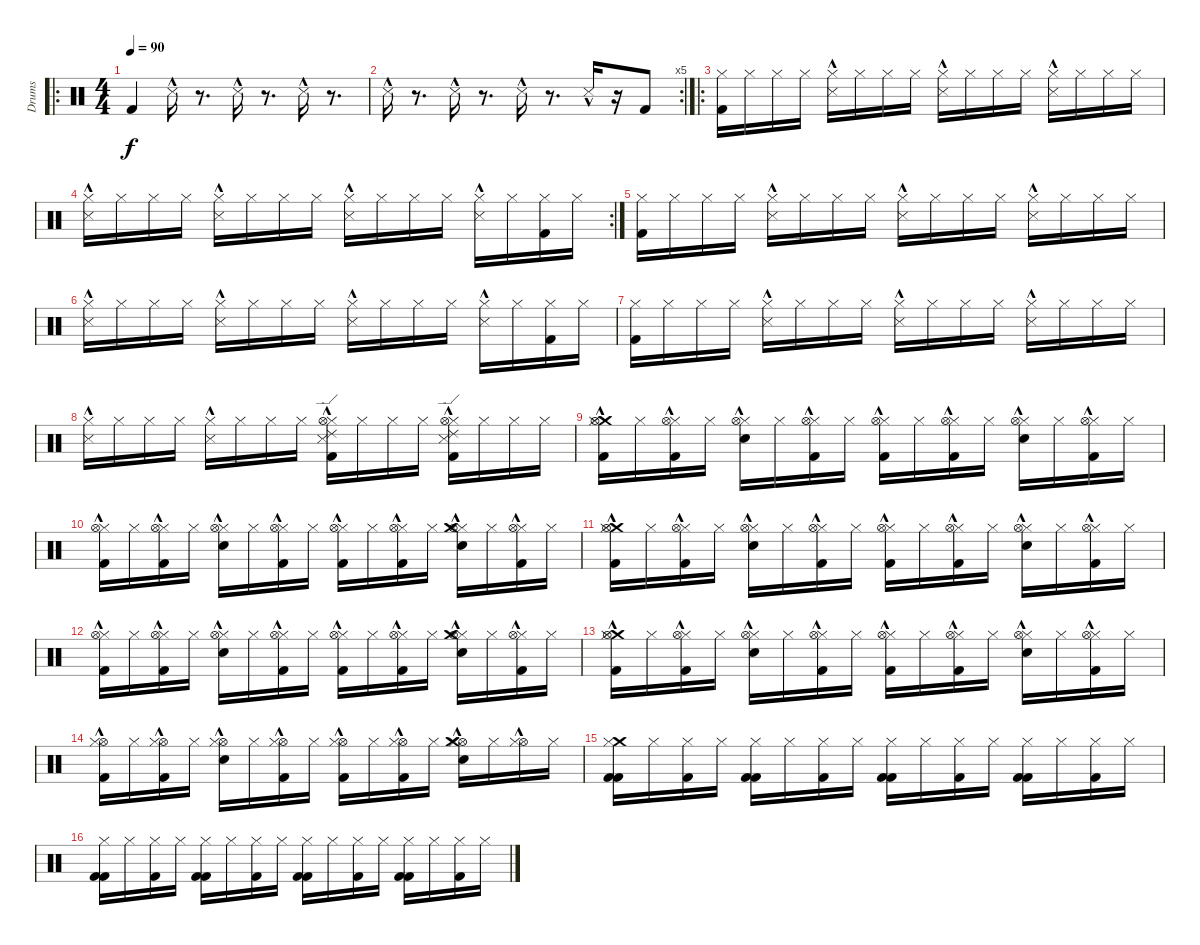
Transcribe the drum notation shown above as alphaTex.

\track ("Drums" "Drums") {instrument percussion}
\staff {score}
\articulation defaults
\ro
\ts (4 4)
\tempo 90
\clef neutral
\ks c "Kick (hit) 2".4{dy f} "Snare (side stick) 3"{hac}.16
r.8{d} "Snare (side stick) 3"{hac}.16 r.8{d} "Snare (side stick) 3"{hac}.16 r.8{d} |
\rc 5 "Snare (side stick) 3"{hac}.16
r.8{d} "Snare (side stick) 3"{hac}.16 r.8{d} "Snare (side stick) 3"{hac}.16 r.8{d} "Snare (side stick) 3"{hac}.16 r.16 "Kick (hit) 2".8 |
\ro
("Kick (hit) 2" "Hi-Hat (closed)").16 "Hi-Hat (closed)".16 "Hi-Hat (closed)".16 "Hi-Hat (closed)".16 ("Snare (side stick) 3"{hac} "Hi-Hat (closed)").16 "Hi-Hat (closed)".16 "Hi-Hat (closed)".16 "Hi-Hat (closed)".16 ("Snare (side stick) 3"{hac} "Hi-Hat (closed)").16 "Hi-Hat (closed)".16 "Hi-Hat (closed)".16 "Hi-Hat (closed)".16 ("Snare (side stick) 3"{hac} "Hi-Hat (closed)").16 "Hi-Hat (closed)".16 "Hi-Hat (closed)".16 "Hi-Hat (closed)".16 |
\rc 2
("Snare (side stick) 3"{hac} "Hi-Hat (closed)").16 "Hi-Hat (closed)".16 "Hi-Hat (closed)".16 "Hi-Hat (closed)".16 ("Snare (side stick) 3"{hac} "Hi-Hat (closed)").16 "Hi-Hat (closed)".16 "Hi-Hat (closed)".16 "Hi-Hat (closed)".16 ("Snare (side stick) 3"{hac} "Hi-Hat (closed)").16 "Hi-Hat (closed)".16 "Hi-Hat (closed)".16 "Hi-Hat (closed)".16 ("Snare (side stick) 3"{hac} "Hi-Hat (closed)").16 "Hi-Hat (closed)".16 ("Kick (hit) 2" "Hi-Hat (closed)").16 "Hi-Hat (closed)".16 |
("Hi-Hat (closed)" "Kick (hit) 2").16 "Hi-Hat (closed)".16 "Hi-Hat (closed)".16 "Hi-Hat (closed)".16 ("Hi-Hat (closed)" "Snare (side stick) 3"{hac}).16 "Hi-Hat (closed)".16 "Hi-Hat (closed)".16 "Hi-Hat (closed)".16 ("Hi-Hat (closed)" "Snare (side stick) 3"{hac}).16 "Hi-Hat (closed)".16 "Hi-Hat (closed)".16 "Hi-Hat (closed)".16 ("Hi-Hat (closed)" "Snare (side stick) 3"{hac}).16 "Hi-Hat (closed)".16 "Hi-Hat (closed)".16 "Hi-Hat (closed)".16 |
("Hi-Hat (closed)" "Snare (side stick) 3"{hac}).16 "Hi-Hat (closed)".16 "Hi-Hat (closed)".16 "Hi-Hat (closed)".16 ("Hi-Hat (closed)" "Snare (side stick) 3"{hac}).16 "Hi-Hat (closed)".16 "Hi-Hat (closed)".16 "Hi-Hat (closed)".16 ("Hi-Hat (closed)" "Snare (side stick) 3"{hac}).16 "Hi-Hat (closed)".16 "Hi-Hat (closed)".16 "Hi-Hat (closed)".16 ("Hi-Hat (closed)" "Snare (side stick) 3"{hac}).16 "Hi-Hat (closed)".16 ("Hi-Hat (closed)" "Kick (hit) 2").16 "Hi-Hat (closed)".16 |
("Hi-Hat (closed)" "Kick (hit) 2").16 "Hi-Hat (closed)".16 "Hi-Hat (closed)".16 "Hi-Hat (closed)".16 ("Hi-Hat (closed)" "Snare (side stick) 3"{hac}).16 "Hi-Hat (closed)".16 "Hi-Hat (closed)".16 "Hi-Hat (closed)".16 ("Hi-Hat (closed)" "Snare (side stick) 3"{hac}).16 "Hi-Hat (closed)".16 "Hi-Hat (closed)".16 "Hi-Hat (closed)".16 ("Hi-Hat (closed)" "Snare (side stick) 3"{hac}).16 "Hi-Hat (closed)".16 "Hi-Hat (closed)".16 "Hi-Hat (closed)".16 |
("Snare (side stick) 3"{hac} "Hi-Hat (closed)").16 "Hi-Hat (closed)".16 "Hi-Hat (closed)".16 "Hi-Hat (closed)".16 ("Snare (side stick) 3"{hac} "Hi-Hat (closed)").16 "Hi-Hat (closed)".16 "Hi-Hat (closed)".16 "Hi-Hat (closed)".16 ("Snare (side stick) 3"{hac} "Ride (edge) 2" "Kick (hit) 2" "Hi-Hat (closed)" "Hi-Hat (open)"{hac}).16 "Hi-Hat (closed)".16 "Hi-Hat (closed)".16 "Hi-Hat (closed)".16 ("Snare (side stick) 3"{hac} "Kick (hit) 2" "Ride (edge) 2" "Hi-Hat (closed)" "Hi-Hat (open)"{hac}).16 "Hi-Hat (closed)".16 "Hi-Hat (closed)".16 "Hi-Hat (closed)".16 |
("Crash medium (hit)" "Kick (hit) 2" "Hi-Hat (closed)" "Hi-Hat (open)"{hac}).16 "Hi-Hat (closed)".16 ("Kick (hit) 2" "Hi-Hat (closed)" "Hi-Hat (open)"{hac}).16 "Hi-Hat (closed)".16 ("Snare (hit) 2" "Hi-Hat (closed)" "Hi-Hat (open)"{hac}).16 "Hi-Hat (closed)".16 ("Kick (hit) 2" "Hi-Hat (closed)" "Hi-Hat (open)"{hac}).16 "Hi-Hat (closed)".16 ("Kick (hit) 2" "Hi-Hat (closed)" "Hi-Hat (open)"{hac}).16 "Hi-Hat (closed)".16 ("Kick (hit) 2" "Hi-Hat (closed)" "Hi-Hat (open)"{hac}).16 "Hi-Hat (closed)".16 ("Snare (hit) 2" "Hi-Hat (closed)" "Hi-Hat (open)"{hac}).16 "Hi-Hat (closed)".16 ("Kick (hit) 2" "Hi-Hat (closed)" "Hi-Hat (open)"{hac}).16 "Hi-Hat (closed)".16 |
("Kick (hit) 2" "Hi-Hat (closed)" "Hi-Hat (open)"{hac}).16 "Hi-Hat (closed)".16 ("Kick (hit) 2" "Hi-Hat (closed)" "Hi-Hat (open)"{hac}).16 "Hi-Hat (closed)".16 ("Snare (hit) 2" "Hi-Hat (closed)" "Hi-Hat (open)"{hac}).16 "Hi-Hat (closed)".16 ("Kick (hit) 2" "Hi-Hat (closed)" "Hi-Hat (open)"{hac}).16 "Hi-Hat (closed)".16 ("Kick (hit) 2" "Hi-Hat (closed)" "Hi-Hat (open)"{hac}).16 "Hi-Hat (closed)".16 ("Kick (hit) 2" "Hi-Hat (closed)" "Hi-Hat (open)"{hac}).16 "Hi-Hat (closed)".16 ("Snare (hit) 2" "Hi-Hat (closed)" "Hi-Hat (open)"{hac} "Crash medium (hit)").16 "Hi-Hat (closed)".16 ("Kick (hit) 2" "Hi-Hat (closed)" "Hi-Hat (open)"{hac}).16 "Hi-Hat (closed)".16 |
("Crash medium (hit)" "Kick (hit) 2" "Hi-Hat (closed)" "Hi-Hat (open)"{hac}).16 "Hi-Hat (closed)".16 ("Kick (hit) 2" "Hi-Hat (closed)" "Hi-Hat (open)"{hac}).16 "Hi-Hat (closed)".16 ("Snare (hit) 2" "Hi-Hat (closed)" "Hi-Hat (open)"{hac}).16 "Hi-Hat (closed)".16 ("Kick (hit) 2" "Hi-Hat (closed)" "Hi-Hat (open)"{hac}).16 "Hi-Hat (closed)".16 ("Kick (hit) 2" "Hi-Hat (closed)" "Hi-Hat (open)"{hac}).16 "Hi-Hat (closed)".16 ("Kick (hit) 2" "Hi-Hat (closed)" "Hi-Hat (open)"{hac}).16 "Hi-Hat (closed)".16 ("Snare (hit) 2" "Hi-Hat (closed)" "Hi-Hat (open)"{hac}).16 "Hi-Hat (closed)".16 ("Kick (hit) 2" "Hi-Hat (closed)" "Hi-Hat (open)"{hac}).16 "Hi-Hat (closed)".16 |
("Kick (hit) 2" "Hi-Hat (closed)" "Hi-Hat (open)"{hac}).16 "Hi-Hat (closed)".16 ("Kick (hit) 2" "Hi-Hat (closed)" "Hi-Hat (open)"{hac}).16 "Hi-Hat (closed)".16 ("Snare (hit) 2" "Hi-Hat (closed)" "Hi-Hat (open)"{hac}).16 "Hi-Hat (closed)".16 ("Kick (hit) 2" "Hi-Hat (closed)" "Hi-Hat (open)"{hac}).16 "Hi-Hat (closed)".16 ("Kick (hit) 2" "Hi-Hat (closed)" "Hi-Hat (open)"{hac}).16 "Hi-Hat (closed)".16 ("Kick (hit) 2" "Hi-Hat (closed)" "Hi-Hat (open)"{hac}).16 "Hi-Hat (closed)".16 ("Snare (hit) 2" "Hi-Hat (closed)" "Hi-Hat (open)"{hac} "Crash medium (hit)").16 "Hi-Hat (closed)".16 ("Kick (hit) 2" "Hi-Hat (closed)" "Hi-Hat (open)"{hac}).16 "Hi-Hat (closed)".16 |
("Crash medium (hit)" "Kick (hit) 2" "Hi-Hat (closed)" "Hi-Hat (open)"{hac}).16 "Hi-Hat (closed)".16 ("Kick (hit) 2" "Hi-Hat (closed)" "Hi-Hat (open)"{hac}).16 "Hi-Hat (closed)".16 ("Snare (hit) 2" "Hi-Hat (closed)" "Hi-Hat (open)"{hac}).16 "Hi-Hat (closed)".16 ("Kick (hit) 2" "Hi-Hat (closed)" "Hi-Hat (open)"{hac}).16 "Hi-Hat (closed)".16 ("Kick (hit) 2" "Hi-Hat (closed)" "Hi-Hat (open)"{hac}).16 "Hi-Hat (closed)".16 ("Kick (hit) 2" "Hi-Hat (closed)" "Hi-Hat (open)"{hac}).16 "Hi-Hat (closed)".16 ("Snare (hit) 2" "Hi-Hat (closed)" "Hi-Hat (open)"{hac}).16 "Hi-Hat (closed)".16 ("Kick (hit) 2" "Hi-Hat (closed)" "Hi-Hat (open)"{hac}).16 "Hi-Hat (closed)".16 |
("Hi-Hat (open)"{hac} "Kick (hit) 2" "Hi-Hat (closed)").16 "Hi-Hat (closed)".16 ("Kick (hit) 2" "Hi-Hat (open)"{hac} "Hi-Hat (closed)").16 "Hi-Hat (closed)".16 ("Snare (hit) 2" "Hi-Hat (open)"{hac} "Hi-Hat (closed)").16 "Hi-Hat (closed)".16 ("Kick (hit) 2" "Hi-Hat (open)"{hac} "Hi-Hat (closed)").16 "Hi-Hat (closed)".16 ("Kick (hit) 2" "Hi-Hat (open)"{hac} "Hi-Hat (closed)").16 "Hi-Hat (closed)".16 ("Hi-Hat (open)"{hac} "Kick (hit) 2"{hac} "Hi-Hat (closed)").16 "Hi-Hat (closed)".16 ("Snare (hit) 2" "Hi-Hat (open)"{hac} "Crash medium (hit)" "Hi-Hat (closed)").16 "Hi-Hat (closed)".16 ("Hi-Hat (open)"{hac} "Hi-Hat (closed)").16 "Hi-Hat (closed)".16 |
("Crash medium (hit)" "Kick (hit) 2" "Kick (hit) 2" "Hi-Hat (closed)").16 "Hi-Hat (closed)".16 ("Kick (hit) 2" "Hi-Hat (closed)").16 "Hi-Hat (closed)".16 ("Kick (hit) 2" "Kick (hit) 2" "Hi-Hat (closed)").16 "Hi-Hat (closed)".16 ("Kick (hit) 2" "Hi-Hat (closed)").16 "Hi-Hat (closed)".16 ("Kick (hit) 2" "Kick (hit) 2" "Hi-Hat (closed)").16 "Hi-Hat (closed)".16 ("Kick (hit) 2" "Hi-Hat (closed)").16 "Hi-Hat (closed)".16 ("Kick (hit) 2" "Kick (hit) 2" "Hi-Hat (closed)").16 "Hi-Hat (closed)".16 ("Kick (hit) 2" "Hi-Hat (closed)").16 "Hi-Hat (closed)".16 |
("Kick (hit) 2" "Kick (hit) 2" "Hi-Hat (closed)").16 "Hi-Hat (closed)".16 ("Kick (hit) 2" "Hi-Hat (closed)").16 "Hi-Hat (closed)".16 ("Kick (hit) 2" "Kick (hit) 2" "Hi-Hat (closed)").16 "Hi-Hat (closed)".16 ("Kick (hit) 2" "Hi-Hat (closed)").16 "Hi-Hat (closed)".16 ("Kick (hit) 2" "Kick (hit) 2" "Hi-Hat (closed)").16 "Hi-Hat (closed)".16 ("Kick (hit) 2" "Hi-Hat (closed)").16 "Hi-Hat (closed)".16 ("Kick (hit) 2" "Kick (hit) 2" "Hi-Hat (closed)").16 "Hi-Hat (closed)".16 ("Kick (hit) 2" "Hi-Hat (closed)").16 "Hi-Hat (closed)".16
